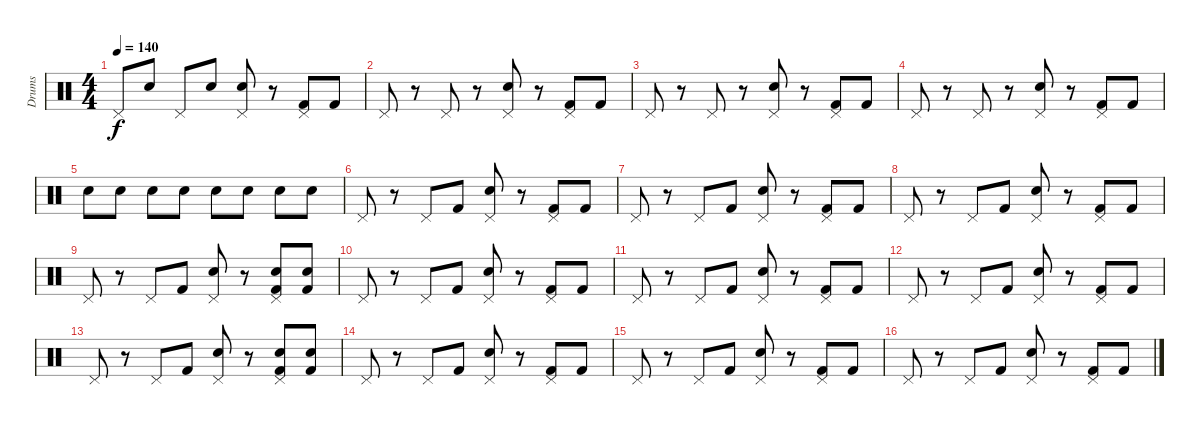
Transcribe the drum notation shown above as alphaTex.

\track ("Drums" "Drums") {instrument percussion}
\staff {score}
\articulation defaults
\ts (4 4)
\tempo 140
\clef neutral
\ks c "Pedal Hi-Hat (hit)".8{dy f} "Snare (hit) 2".8 "Pedal Hi-Hat (hit)".8 "Snare (hit) 2".8
("Pedal Hi-Hat (hit)" "Snare (hit) 2").8 r.8 ("Pedal Hi-Hat (hit)" "Kick (hit) 2").8 "Kick (hit) 2".8 |
"Pedal Hi-Hat (hit)".8 r.8 "Pedal Hi-Hat (hit)".8 r.8 ("Pedal Hi-Hat (hit)" "Snare (hit) 2").8 r.8 ("Pedal Hi-Hat (hit)" "Kick (hit) 2").8 "Kick (hit) 2".8 |
"Pedal Hi-Hat (hit)".8 r.8 "Pedal Hi-Hat (hit)".8 r.8 ("Pedal Hi-Hat (hit)" "Snare (hit) 2").8 r.8 ("Pedal Hi-Hat (hit)" "Kick (hit) 2").8 "Kick (hit) 2".8 |
"Pedal Hi-Hat (hit)".8 r.8 "Pedal Hi-Hat (hit)".8 r.8 ("Pedal Hi-Hat (hit)" "Snare (hit) 2").8 r.8 ("Pedal Hi-Hat (hit)" "Kick (hit) 2").8 "Kick (hit) 2".8 |
"Snare (hit) 2".8 "Snare (hit) 2".8 "Snare (hit) 2".8 "Snare (hit) 2".8 "Snare (hit) 2".8 "Snare (hit) 2".8 "Snare (hit) 2".8 "Snare (hit) 2".8 |
"Pedal Hi-Hat (hit)".8 r.8 "Pedal Hi-Hat (hit)".8 "Kick (hit) 2".8 ("Pedal Hi-Hat (hit)" "Snare (hit) 2").8 r.8 ("Pedal Hi-Hat (hit)" "Kick (hit) 2").8 "Kick (hit) 2".8 |
"Pedal Hi-Hat (hit)".8 r.8 "Pedal Hi-Hat (hit)".8 "Kick (hit) 2".8 ("Pedal Hi-Hat (hit)" "Snare (hit) 2").8 r.8 ("Pedal Hi-Hat (hit)" "Kick (hit) 2").8 "Kick (hit) 2".8 |
"Pedal Hi-Hat (hit)".8 r.8 "Pedal Hi-Hat (hit)".8 "Kick (hit) 2".8 ("Pedal Hi-Hat (hit)" "Snare (hit) 2").8 r.8 ("Pedal Hi-Hat (hit)" "Kick (hit) 2").8 "Kick (hit) 2".8 |
"Pedal Hi-Hat (hit)".8 r.8 "Pedal Hi-Hat (hit)".8 "Kick (hit) 2".8 ("Pedal Hi-Hat (hit)" "Snare (hit) 2").8 r.8 ("Pedal Hi-Hat (hit)" "Snare (hit) 2" "Kick (hit) 2").8 ("Snare (hit) 2" "Kick (hit) 2").8 |
"Pedal Hi-Hat (hit)".8 r.8 "Pedal Hi-Hat (hit)".8 "Kick (hit) 2".8 ("Pedal Hi-Hat (hit)" "Snare (hit) 2").8 r.8 ("Pedal Hi-Hat (hit)" "Kick (hit) 2").8 "Kick (hit) 2".8 |
"Pedal Hi-Hat (hit)".8 r.8 "Pedal Hi-Hat (hit)".8 "Kick (hit) 2".8 ("Pedal Hi-Hat (hit)" "Snare (hit) 2").8 r.8 ("Pedal Hi-Hat (hit)" "Kick (hit) 2").8 "Kick (hit) 2".8 |
"Pedal Hi-Hat (hit)".8 r.8 "Pedal Hi-Hat (hit)".8 "Kick (hit) 2".8 ("Pedal Hi-Hat (hit)" "Snare (hit) 2").8 r.8 ("Pedal Hi-Hat (hit)" "Kick (hit) 2").8 "Kick (hit) 2".8 |
"Pedal Hi-Hat (hit)".8 r.8 "Pedal Hi-Hat (hit)".8 "Kick (hit) 2".8 ("Pedal Hi-Hat (hit)" "Snare (hit) 2").8 r.8 ("Pedal Hi-Hat (hit)" "Snare (hit) 2" "Kick (hit) 2").8 ("Snare (hit) 2" "Kick (hit) 2").8 |
"Pedal Hi-Hat (hit)".8 r.8 "Pedal Hi-Hat (hit)".8 "Kick (hit) 2".8 ("Pedal Hi-Hat (hit)" "Snare (hit) 2").8 r.8 ("Pedal Hi-Hat (hit)" "Kick (hit) 2").8 "Kick (hit) 2".8 |
"Pedal Hi-Hat (hit)".8 r.8 "Pedal Hi-Hat (hit)".8 "Kick (hit) 2".8 ("Pedal Hi-Hat (hit)" "Snare (hit) 2").8 r.8 ("Pedal Hi-Hat (hit)" "Kick (hit) 2").8 "Kick (hit) 2".8 |
"Pedal Hi-Hat (hit)".8 r.8 "Pedal Hi-Hat (hit)".8 "Kick (hit) 2".8 ("Pedal Hi-Hat (hit)" "Snare (hit) 2").8 r.8 ("Pedal Hi-Hat (hit)" "Kick (hit) 2").8 "Kick (hit) 2".8
